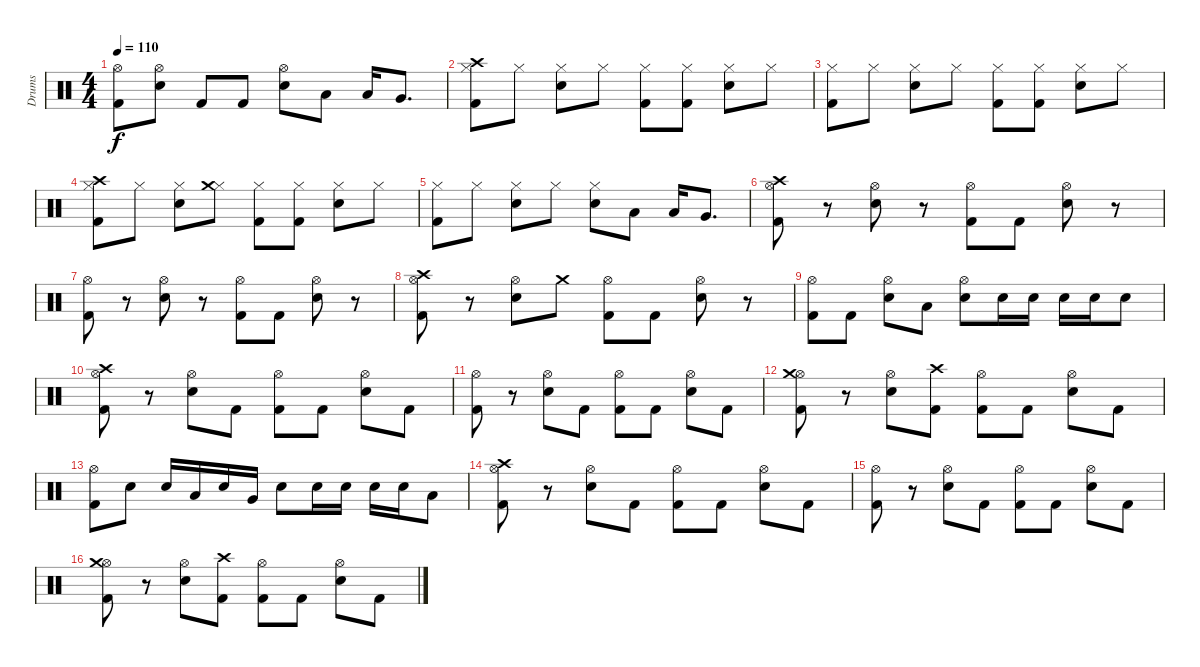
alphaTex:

\track ("Drums" "Drums") {instrument percussion}
\staff {score}
\articulation defaults
\ts (4 4)
\tempo 110
\clef neutral
\ks c
("Hi-Hat (open)" "Kick (hit) 2").8{dy f} ("Hi-Hat (open)" "Snare (hit) 2").8 "Kick (hit) 2".8 "Kick (hit) 2".8 ("Hi-Hat (open)" "Snare (hit) 2").8 "Low Tom (hit)".8 "Low Tom (hit)".16 "Very Low Tom (hit)".8{d} |
("Hi-Hat (closed)" "Kick (hit) 2" "Crash high (hit)").8 "Hi-Hat (closed)".8 ("Hi-Hat (closed)" "Snare (hit) 2").8 "Hi-Hat (closed)".8 ("Hi-Hat (closed)" "Kick (hit) 2").8 ("Hi-Hat (closed)" "Kick (hit) 2").8 ("Hi-Hat (closed)" "Snare (hit) 2").8 "Hi-Hat (closed)".8 |
("Hi-Hat (closed)" "Kick (hit) 2").8 "Hi-Hat (closed)".8 ("Hi-Hat (closed)" "Snare (hit) 2").8 "Hi-Hat (closed)".8 ("Hi-Hat (closed)" "Kick (hit) 2").8 ("Hi-Hat (closed)" "Kick (hit) 2").8 ("Hi-Hat (closed)" "Snare (hit) 2").8 "Hi-Hat (closed)".8 |
("Hi-Hat (closed)" "Kick (hit) 2" "Crash high (hit)").8 "Hi-Hat (closed)".8 ("Hi-Hat (closed)" "Snare (hit) 2").8 ("Hi-Hat (closed)" "Crash medium (hit)").8 ("Hi-Hat (closed)" "Kick (hit) 2").8 ("Hi-Hat (closed)" "Kick (hit) 2").8 ("Hi-Hat (closed)" "Snare (hit) 2").8 "Hi-Hat (closed)".8 |
("Hi-Hat (closed)" "Kick (hit) 2").8 "Hi-Hat (closed)".8 ("Hi-Hat (closed)" "Snare (hit) 2").8 "Hi-Hat (closed)".8 ("Hi-Hat (closed)" "Snare (hit) 2").8 "Low Tom (hit)".8 "Low Tom (hit)".16 "Very Low Tom (hit)".8{d} |
("Hi-Hat (open)" "Kick (hit) 2" "Crash high (hit)").8 r.8 ("Hi-Hat (open)" "Snare (hit) 2").8 r.8 ("Hi-Hat (open)" "Kick (hit) 2").8 "Kick (hit) 2".8 ("Hi-Hat (open)" "Snare (hit) 2").8 r.8 |
("Hi-Hat (open)" "Kick (hit) 2").8 r.8 ("Hi-Hat (open)" "Snare (hit) 2").8 r.8 ("Hi-Hat (open)" "Kick (hit) 2").8 "Kick (hit) 2".8 ("Hi-Hat (open)" "Snare (hit) 2").8 r.8 |
("Hi-Hat (open)" "Kick (hit) 2" "Crash high (hit)").8 r.8 ("Hi-Hat (open)" "Snare (hit) 2").8 "Crash medium (hit)".8 ("Hi-Hat (open)" "Kick (hit) 2").8 "Kick (hit) 2".8 ("Hi-Hat (open)" "Snare (hit) 2").8 r.8 |
("Hi-Hat (open)" "Kick (hit) 2").8 "Kick (hit) 2".8 ("Hi-Hat (open)" "Snare (hit) 2").8 "Low Tom (hit)".8 ("Hi-Hat (open)" "Snare (hit) 2").8 "Snare (hit) 2".16 "Snare (hit) 2".16 "Snare (hit) 2".16 "Snare (hit) 2".16 "Snare (hit) 2".8 |
("Hi-Hat (open)" "Kick (hit) 2" "Crash high (hit)").8 r.8 ("Hi-Hat (open)" "Snare (hit) 2").8 "Kick (hit) 2".8 ("Hi-Hat (open)" "Kick (hit) 2").8 "Kick (hit) 2".8 ("Hi-Hat (open)" "Snare (hit) 2").8 "Kick (hit) 2".8 |
("Hi-Hat (open)" "Kick (hit) 2").8 r.8 ("Hi-Hat (open)" "Snare (hit) 2").8 "Kick (hit) 2".8 ("Hi-Hat (open)" "Kick (hit) 2").8 "Kick (hit) 2".8 ("Hi-Hat (open)" "Snare (hit) 2").8 "Kick (hit) 2".8 |
("Hi-Hat (open)" "Kick (hit) 2" "Crash medium (hit)").8 r.8 ("Hi-Hat (open)" "Snare (hit) 2").8 ("Kick (hit) 2" "Crash high (hit)").8 ("Hi-Hat (open)" "Kick (hit) 2").8 "Kick (hit) 2".8 ("Hi-Hat (open)" "Snare (hit) 2").8 "Kick (hit) 2".8 |
("Hi-Hat (open)" "Kick (hit) 2").8 "Snare (hit) 2".8 "Snare (hit) 2".16 "Low Tom (hit)".16 "Snare (hit) 2".16 "Very Low Tom (hit)".16 "Snare (hit) 2".8 "Snare (hit) 2".16 "Snare (hit) 2".16 "Snare (hit) 2".16 "Snare (hit) 2".16 "Low Tom (hit)".8 |
("Hi-Hat (open)" "Kick (hit) 2" "Crash high (hit)").8 r.8 ("Hi-Hat (open)" "Snare (hit) 2").8 "Kick (hit) 2".8 ("Hi-Hat (open)" "Kick (hit) 2").8 "Kick (hit) 2".8 ("Hi-Hat (open)" "Snare (hit) 2").8 "Kick (hit) 2".8 |
("Hi-Hat (open)" "Kick (hit) 2").8 r.8 ("Hi-Hat (open)" "Snare (hit) 2").8 "Kick (hit) 2".8 ("Hi-Hat (open)" "Kick (hit) 2").8 "Kick (hit) 2".8 ("Hi-Hat (open)" "Snare (hit) 2").8 "Kick (hit) 2".8 |
("Hi-Hat (open)" "Kick (hit) 2" "Crash medium (hit)").8 r.8 ("Hi-Hat (open)" "Snare (hit) 2").8 ("Kick (hit) 2" "Crash high (hit)").8 ("Hi-Hat (open)" "Kick (hit) 2").8 "Kick (hit) 2".8 ("Hi-Hat (open)" "Snare (hit) 2").8 "Kick (hit) 2".8
